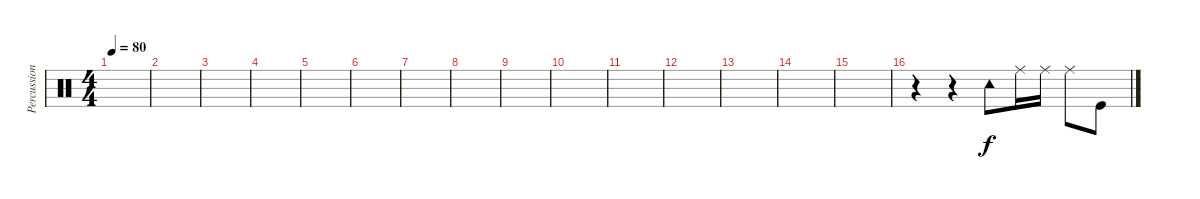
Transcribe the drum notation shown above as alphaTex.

\track ("Percussion" "Percussion") {instrument percussion}
\staff {score}
\articulation defaults
\ts (4 4)
\tempo 80
\clef neutral
\ks c
|
|
|
|
|
|
|
|
|
|
|
|
|
|
|
r.4 r.4 "Tambourine (hit)".8 "Ride (middle)".16{dy f} "Ride (middle)".16 "Ride (middle)".8 "Kick (hit)".8
